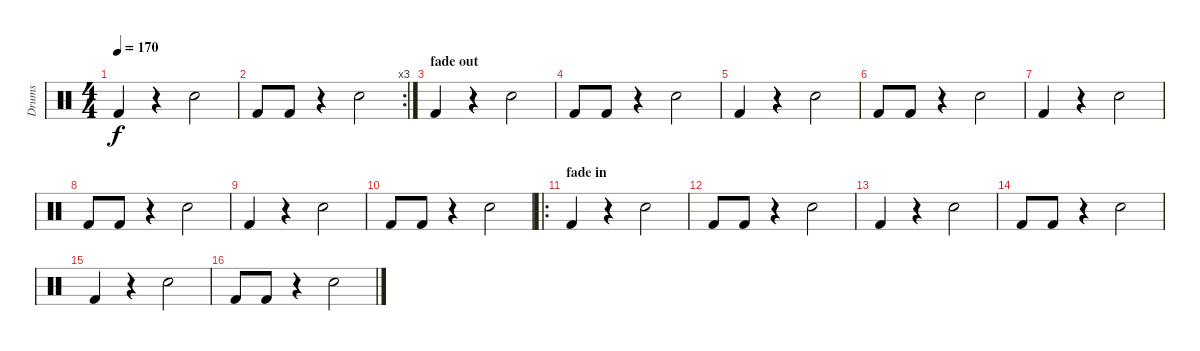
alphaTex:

\track ("Drums" "Drums") {instrument percussion}
\staff {score}
\articulation defaults
\ts (4 4)
\tempo 170
\clef neutral
\ks c "Kick (hit) 2".4{dy f}
r.4 "Snare (hit) 2".2 |
\rc 3 "Kick (hit) 2".8 "Kick (hit) 2".8
r.4 "Snare (hit) 2".2 |
\section ("" "fade out")
"Kick (hit) 2".4 r.4 "Snare (hit) 2".2 |
"Kick (hit) 2".8 "Kick (hit) 2".8 r.4 "Snare (hit) 2".2 |
"Kick (hit) 2".4 r.4 "Snare (hit) 2".2 |
"Kick (hit) 2".8 "Kick (hit) 2".8 r.4 "Snare (hit) 2".2 |
"Kick (hit) 2".4 r.4 "Snare (hit) 2".2 |
"Kick (hit) 2".8 "Kick (hit) 2".8 r.4 "Snare (hit) 2".2 |
"Kick (hit) 2".4 r.4 "Snare (hit) 2".2 |
"Kick (hit) 2".8 "Kick (hit) 2".8 r.4 "Snare (hit) 2".2 |
\ro
\section ("" "fade in")
"Kick (hit) 2".4 r.4 "Snare (hit) 2".2 |
"Kick (hit) 2".8 "Kick (hit) 2".8 r.4 "Snare (hit) 2".2 |
"Kick (hit) 2".4 r.4 "Snare (hit) 2".2 |
"Kick (hit) 2".8 "Kick (hit) 2".8 r.4 "Snare (hit) 2".2 |
"Kick (hit) 2".4 r.4 "Snare (hit) 2".2 |
"Kick (hit) 2".8 "Kick (hit) 2".8 r.4 "Snare (hit) 2".2
